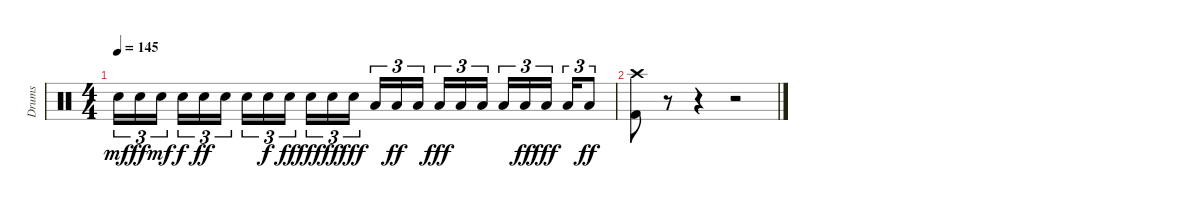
\track ("Drums" "Drums") {instrument percussion}
\staff {score}
\articulation defaults
\ts (4 4)
\tempo 145
\clef neutral
\ks c "Snare (hit) 2".16{tu (3 2) dy mf} "Snare (hit) 2".16{tu (3 2) dy ff} "Snare (hit) 2".16{tu (3 2) dy mf} "Snare (hit) 2".16{tu (3 2) dy f} "Snare (hit) 2".16{tu (3 2) dy ff} "Snare (hit) 2".16{tu (3 2)} "Snare (hit) 2".16{tu (3 2)} "Snare (hit) 2".16{tu (3 2) dy f} "Snare (hit) 2".16{tu (3 2) dy ff} "Snare (hit) 2".16{tu (3 2) dy fff} "Snare (hit) 2".16{tu (3 2) dy ff} "Snare (hit) 2".16{tu (3 2) dy fff} "Low Tom (hit)".16{tu (3 2)} "Low Tom (hit)".16{tu (3 2) dy ff} "Low Tom (hit)".16{tu (3 2)} "Low Tom (hit)".16{tu (3 2) dy fff} "Low Tom (hit)".16{tu (3 2)} "Low Tom (hit)".16{tu (3 2)} "Low Tom (hit)".16{tu (3 2)} "Low Tom (hit)".16{tu (3 2) dy ff} "Low Tom (hit)".16{tu (3 2) dy fff} "Low Tom (hit)".16{tu (3 2)} "Low Tom (hit)".8{tu (3 2) dy ff}
|
("Crash high (hit)" "Kick (hit) 2").8 r.8 r.4 r.2
